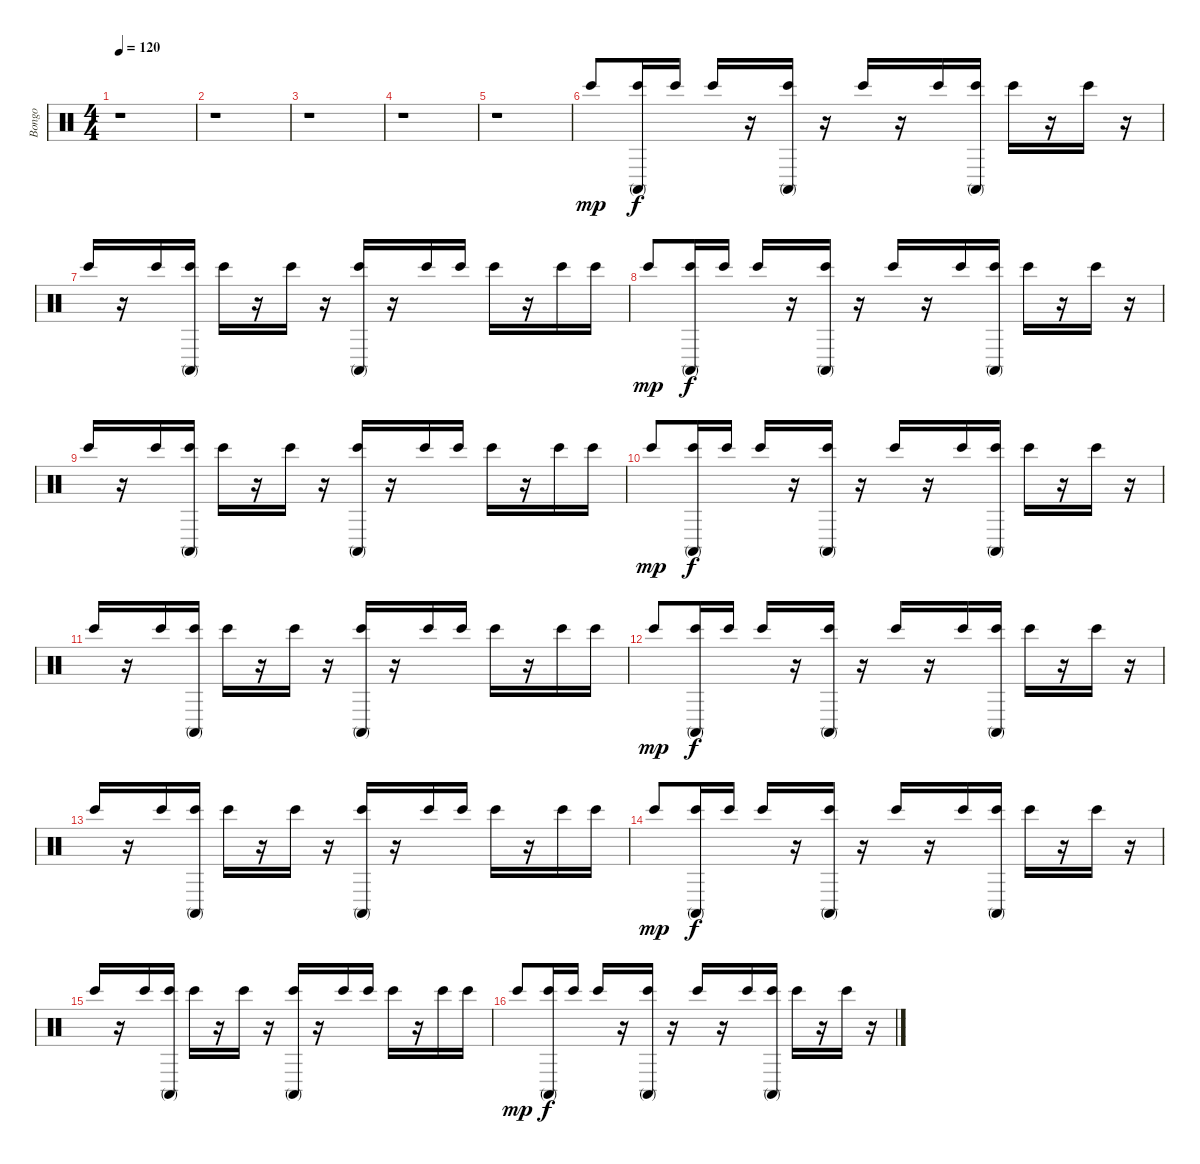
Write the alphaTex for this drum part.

\track ("Bongo" "Bongo") {instrument percussion}
\staff {score}
\articulation defaults
\ts (4 4)
\tempo 120
\clef neutral
\ks c
r.1{dy mp} |
r.1 |
r.1 |
r.1 |
r.1 |
"Bongo High (hit)".8 ("Conga high (mute)" "Bongo High (hit)").16{dy f} "Bongo High (hit)".16 "Bongo High (hit)".16 r.16 ("Conga high (mute)" "Bongo High (hit)").16 r.16 "Bongo High (hit)".16 r.16 "Bongo High (hit)".16 ("Conga high (mute)" "Bongo High (hit)").16 "Bongo High (hit)".16 r.16 "Bongo High (hit)".16 r.16 |
"Bongo High (hit)".16 r.16 "Bongo High (hit)".16 ("Conga high (mute)" "Bongo High (hit)").16 "Bongo High (hit)".16 r.16 "Bongo High (hit)".16 r.16 ("Conga high (mute)" "Bongo High (hit)").16 r.16 "Bongo High (hit)".16 "Bongo High (hit)".16 "Bongo High (hit)".16 r.16 "Bongo High (hit)".16 "Bongo High (hit)".16 |
"Bongo High (hit)".8{dy mp} ("Conga high (mute)" "Bongo High (hit)").16{dy f} "Bongo High (hit)".16 "Bongo High (hit)".16 r.16 ("Conga high (mute)" "Bongo High (hit)").16 r.16 "Bongo High (hit)".16 r.16 "Bongo High (hit)".16 ("Conga high (mute)" "Bongo High (hit)").16 "Bongo High (hit)".16 r.16 "Bongo High (hit)".16 r.16 |
"Bongo High (hit)".16 r.16 "Bongo High (hit)".16 ("Conga high (mute)" "Bongo High (hit)").16 "Bongo High (hit)".16 r.16 "Bongo High (hit)".16 r.16 ("Conga high (mute)" "Bongo High (hit)").16 r.16 "Bongo High (hit)".16 "Bongo High (hit)".16 "Bongo High (hit)".16 r.16 "Bongo High (hit)".16 "Bongo High (hit)".16 |
"Bongo High (hit)".8{dy mp} ("Conga high (mute)" "Bongo High (hit)").16{dy f} "Bongo High (hit)".16 "Bongo High (hit)".16 r.16 ("Conga high (mute)" "Bongo High (hit)").16 r.16 "Bongo High (hit)".16 r.16 "Bongo High (hit)".16 ("Conga high (mute)" "Bongo High (hit)").16 "Bongo High (hit)".16 r.16 "Bongo High (hit)".16 r.16 |
"Bongo High (hit)".16 r.16 "Bongo High (hit)".16 ("Conga high (mute)" "Bongo High (hit)").16 "Bongo High (hit)".16 r.16 "Bongo High (hit)".16 r.16 ("Conga high (mute)" "Bongo High (hit)").16 r.16 "Bongo High (hit)".16 "Bongo High (hit)".16 "Bongo High (hit)".16 r.16 "Bongo High (hit)".16 "Bongo High (hit)".16 |
"Bongo High (hit)".8{dy mp} ("Conga high (mute)" "Bongo High (hit)").16{dy f} "Bongo High (hit)".16 "Bongo High (hit)".16 r.16 ("Conga high (mute)" "Bongo High (hit)").16 r.16 "Bongo High (hit)".16 r.16 "Bongo High (hit)".16 ("Conga high (mute)" "Bongo High (hit)").16 "Bongo High (hit)".16 r.16 "Bongo High (hit)".16 r.16 |
"Bongo High (hit)".16 r.16 "Bongo High (hit)".16 ("Conga high (mute)" "Bongo High (hit)").16 "Bongo High (hit)".16 r.16 "Bongo High (hit)".16 r.16 ("Conga high (mute)" "Bongo High (hit)").16 r.16 "Bongo High (hit)".16 "Bongo High (hit)".16 "Bongo High (hit)".16 r.16 "Bongo High (hit)".16 "Bongo High (hit)".16 |
"Bongo High (hit)".8{dy mp} ("Conga high (mute)" "Bongo High (hit)").16{dy f} "Bongo High (hit)".16 "Bongo High (hit)".16 r.16 ("Conga high (mute)" "Bongo High (hit)").16 r.16 "Bongo High (hit)".16 r.16 "Bongo High (hit)".16 ("Conga high (mute)" "Bongo High (hit)").16 "Bongo High (hit)".16 r.16 "Bongo High (hit)".16 r.16 |
"Bongo High (hit)".16 r.16 "Bongo High (hit)".16 ("Conga high (mute)" "Bongo High (hit)").16 "Bongo High (hit)".16 r.16 "Bongo High (hit)".16 r.16 ("Conga high (mute)" "Bongo High (hit)").16 r.16 "Bongo High (hit)".16 "Bongo High (hit)".16 "Bongo High (hit)".16 r.16 "Bongo High (hit)".16 "Bongo High (hit)".16 |
"Bongo High (hit)".8{dy mp} ("Conga high (mute)" "Bongo High (hit)").16{dy f} "Bongo High (hit)".16 "Bongo High (hit)".16 r.16 ("Conga high (mute)" "Bongo High (hit)").16 r.16 "Bongo High (hit)".16 r.16 "Bongo High (hit)".16 ("Conga high (mute)" "Bongo High (hit)").16 "Bongo High (hit)".16 r.16 "Bongo High (hit)".16 r.16
